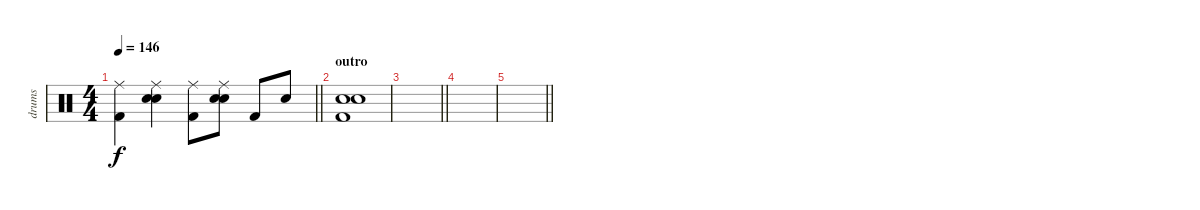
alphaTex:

\track ("drums " "drums ") {instrument percussion}
\staff {score}
\articulation defaults
\ts (4 4)
\tempo 146
\clef neutral
\barLineRight lightlight
\ks c
("Ride (middle)" "Kick (hit) 2").4{dy f} ("Ride (middle)" "Electric Snare (hit)" "Snare (hit) 2").4 ("Ride (middle)" "Kick (hit) 2").8 ("Ride (middle)" "Electric Snare (hit)" "Snare (hit) 2").8 "Kick (hit) 2".8 "Snare (hit) 2".8 |
\section ("" "outro")
("Snare (hit) 2" "Electric Snare (hit)" "Kick (hit) 2").1 |
\barLineRight lightlight
|
|
\barLineRight lightlight
